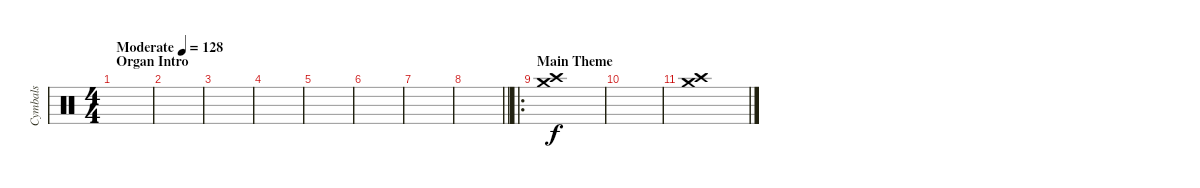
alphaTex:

\track ("Cymbals" "Cymbals") {instrument percussion}
\staff {score}
\articulation defaults
\ts (4 4)
\section ("" "Organ Intro")
\tempo (128 "Moderate")
\clef neutral
\ks c
|
|
|
|
|
|
|
\barLineRight lightlight
|
\ro
\section ("" "Main Theme")
("Crash high (hit)" "Crash medium (hit)").1 |
|
("Crash high (hit)" "Crash medium (hit)").1
